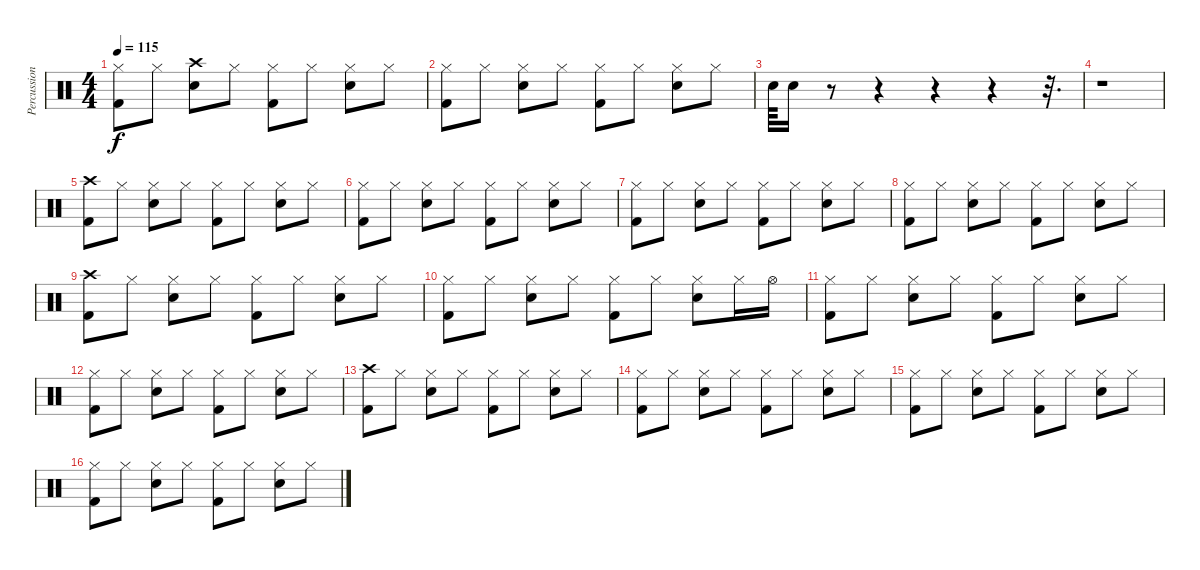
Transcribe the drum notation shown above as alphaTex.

\track ("Percussion" "Percussion") {instrument percussion}
\staff {score}
\articulation defaults
\ts (4 4)
\tempo 115
\clef neutral
\ks c
("Hi-Hat (closed)" "Kick (hit) 2").8{dy f} "Hi-Hat (closed)".8 ("Crash high (hit)" "Snare (hit) 2").8 "Hi-Hat (closed)".8 ("Hi-Hat (closed)" "Kick (hit) 2").8 "Hi-Hat (closed)".8 ("Hi-Hat (closed)" "Snare (hit) 2").8 "Hi-Hat (closed)".8 |
("Hi-Hat (closed)" "Kick (hit) 2").8 "Hi-Hat (closed)".8 ("Hi-Hat (closed)" "Snare (hit) 2").8 "Hi-Hat (closed)".8 ("Hi-Hat (closed)" "Kick (hit) 2").8 "Hi-Hat (closed)".8 ("Hi-Hat (closed)" "Snare (hit) 2").8 "Hi-Hat (closed)".8 |
"Snare (hit) 2".64 "Snare (hit) 2".16 r.8 r.4 r.4 r.4 r.32{d} |
r.1 |
("Crash high (hit)" "Kick (hit) 2").8 "Hi-Hat (closed)".8 ("Hi-Hat (closed)" "Snare (hit) 2").8 "Hi-Hat (closed)".8 ("Hi-Hat (closed)" "Kick (hit) 2").8 "Hi-Hat (closed)".8 ("Hi-Hat (closed)" "Snare (hit) 2").8 "Hi-Hat (closed)".8 |
("Hi-Hat (closed)" "Kick (hit) 2").8 "Hi-Hat (closed)".8 ("Hi-Hat (closed)" "Snare (hit) 2").8 "Hi-Hat (closed)".8 ("Hi-Hat (closed)" "Kick (hit) 2").8 "Hi-Hat (closed)".8 ("Hi-Hat (closed)" "Snare (hit) 2").8 "Hi-Hat (closed)".8 |
("Hi-Hat (closed)" "Kick (hit) 2").8 "Hi-Hat (closed)".8 ("Hi-Hat (closed)" "Snare (hit) 2").8 "Hi-Hat (closed)".8 ("Hi-Hat (closed)" "Kick (hit) 2").8 "Hi-Hat (closed)".8 ("Hi-Hat (closed)" "Snare (hit) 2").8 "Hi-Hat (closed)".8 |
("Hi-Hat (closed)" "Kick (hit) 2").8 "Hi-Hat (closed)".8 ("Hi-Hat (closed)" "Snare (hit) 2").8 "Hi-Hat (closed)".8 ("Hi-Hat (closed)" "Kick (hit) 2").8 "Hi-Hat (closed)".8 ("Hi-Hat (closed)" "Snare (hit) 2").8 "Hi-Hat (closed)".8 |
("Crash high (hit)" "Kick (hit) 2").8 "Hi-Hat (closed)".8 ("Hi-Hat (closed)" "Snare (hit) 2").8 "Hi-Hat (closed)".8 ("Hi-Hat (closed)" "Kick (hit) 2").8 "Hi-Hat (closed)".8 ("Hi-Hat (closed)" "Snare (hit) 2").8 "Hi-Hat (closed)".8 |
("Hi-Hat (closed)" "Kick (hit) 2").8 "Hi-Hat (closed)".8 ("Hi-Hat (closed)" "Snare (hit) 2").8 "Hi-Hat (closed)".8 ("Hi-Hat (closed)" "Kick (hit) 2").8 "Hi-Hat (closed)".8 ("Hi-Hat (closed)" "Snare (hit) 2").8 "Hi-Hat (closed)".16 "Hi-Hat (open)".16 |
("Hi-Hat (closed)" "Kick (hit) 2").8 "Hi-Hat (closed)".8 ("Hi-Hat (closed)" "Snare (hit) 2").8 "Hi-Hat (closed)".8 ("Hi-Hat (closed)" "Kick (hit) 2").8 "Hi-Hat (closed)".8 ("Hi-Hat (closed)" "Snare (hit) 2").8 "Hi-Hat (closed)".8 |
("Hi-Hat (closed)" "Kick (hit) 2").8 "Hi-Hat (closed)".8 ("Hi-Hat (closed)" "Snare (hit) 2").8 "Hi-Hat (closed)".8 ("Hi-Hat (closed)" "Kick (hit) 2").8 "Hi-Hat (closed)".8 ("Hi-Hat (closed)" "Snare (hit) 2").8 "Hi-Hat (closed)".8 |
("Crash high (hit)" "Kick (hit) 2").8 "Hi-Hat (closed)".8 ("Hi-Hat (closed)" "Snare (hit) 2").8 "Hi-Hat (closed)".8 ("Hi-Hat (closed)" "Kick (hit) 2").8 "Hi-Hat (closed)".8 ("Hi-Hat (closed)" "Snare (hit) 2").8 "Hi-Hat (closed)".8 |
("Hi-Hat (closed)" "Kick (hit) 2").8 "Hi-Hat (closed)".8 ("Hi-Hat (closed)" "Snare (hit) 2").8 "Hi-Hat (closed)".8 ("Hi-Hat (closed)" "Kick (hit) 2").8 "Hi-Hat (closed)".8 ("Hi-Hat (closed)" "Snare (hit) 2").8 "Hi-Hat (closed)".8 |
("Hi-Hat (closed)" "Kick (hit) 2").8 "Hi-Hat (closed)".8 ("Hi-Hat (closed)" "Snare (hit) 2").8 "Hi-Hat (closed)".8 ("Hi-Hat (closed)" "Kick (hit) 2").8 "Hi-Hat (closed)".8 ("Hi-Hat (closed)" "Snare (hit) 2").8 "Hi-Hat (closed)".8 |
("Hi-Hat (closed)" "Kick (hit) 2").8 "Hi-Hat (closed)".8 ("Hi-Hat (closed)" "Snare (hit) 2").8 "Hi-Hat (closed)".8 ("Hi-Hat (closed)" "Kick (hit) 2").8 "Hi-Hat (closed)".8 ("Hi-Hat (closed)" "Snare (hit) 2").8 "Hi-Hat (closed)".8
